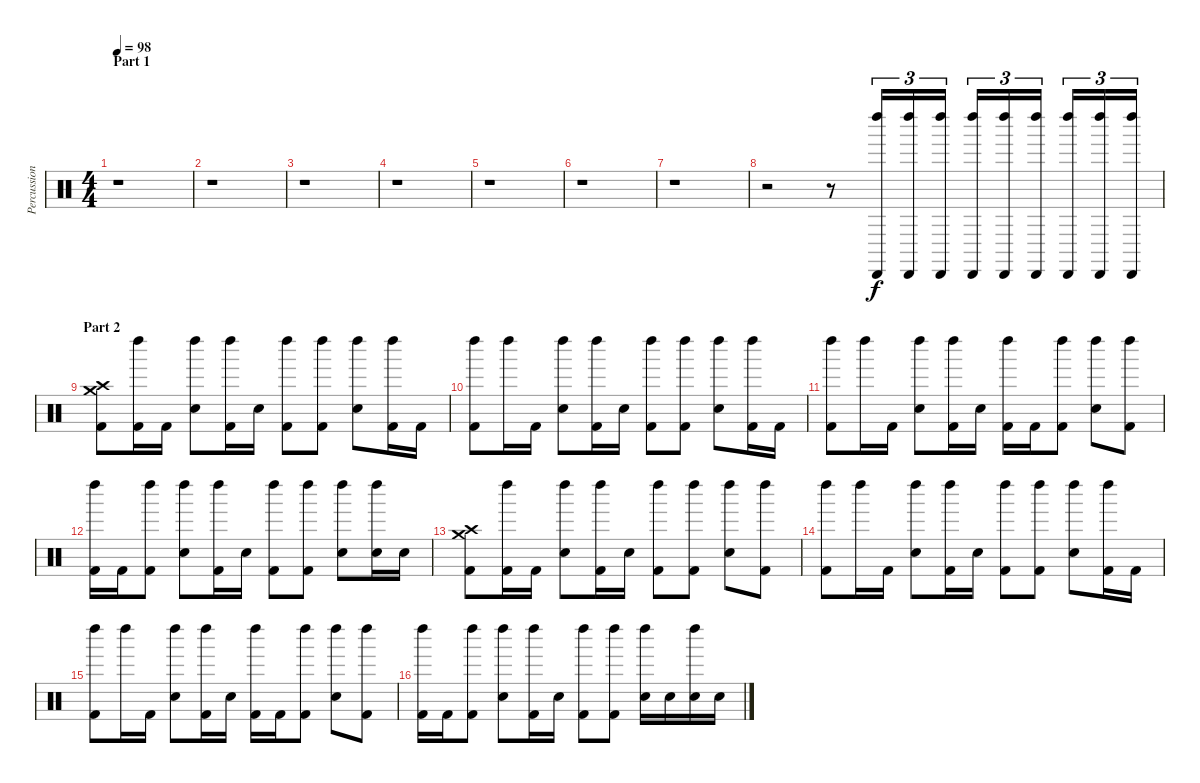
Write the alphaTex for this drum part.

\track ("Percussion" "Percussion") {instrument percussion}
\staff {score}
\articulation defaults
\ts (4 4)
\section ("" "Part 1")
\tempo 98
\clef neutral
\ks c
r.1{dy f} |
r.1 |
r.1 |
r.1 |
r.1 |
r.1 |
r.1 |
r.2{volume 8} r.8 ("Left Maraca (hit)" "Cabasa (hit)").16{tu (3 2)} ("Left Maraca (hit)" "Cabasa (hit)").16{tu (3 2)} ("Left Maraca (hit)" "Cabasa (hit)").16{tu (3 2)} ("Left Maraca (hit)" "Cabasa (hit)").16{tu (3 2)} ("Left Maraca (hit)" "Cabasa (hit)").16{tu (3 2)} ("Left Maraca (hit)" "Cabasa (hit)").16{tu (3 2)} ("Left Maraca (hit)" "Cabasa (hit)").16{tu (3 2)} ("Left Maraca (hit)" "Cabasa (hit)").16{tu (3 2)} ("Left Maraca (hit)" "Cabasa (hit)").16{tu (3 2)} |
\section ("" "Part 2")
("Crash medium (hit)" "Crash high (hit)" "Kick (hit) 2").8{volume 12} ("Left Maraca (hit)" "Kick (hit) 2").16 "Kick (hit) 2".16 ("Left Maraca (hit)" "Snare (hit) 2").8 ("Left Maraca (hit)" "Kick (hit) 2").16 "Snare (hit) 2".16 ("Left Maraca (hit)" "Kick (hit) 2").8 ("Left Maraca (hit)" "Kick (hit) 2").8 ("Left Maraca (hit)" "Snare (hit) 2").8 ("Left Maraca (hit)" "Kick (hit) 2").16 "Kick (hit) 2".16 |
("Left Maraca (hit)" "Kick (hit) 2").8 "Left Maraca (hit)".16 "Kick (hit) 2".16 ("Left Maraca (hit)" "Snare (hit) 2").8 ("Left Maraca (hit)" "Kick (hit) 2").16 "Snare (hit) 2".16 ("Left Maraca (hit)" "Kick (hit) 2").8 ("Left Maraca (hit)" "Kick (hit) 2").8 ("Left Maraca (hit)" "Snare (hit) 2").8 ("Left Maraca (hit)" "Kick (hit) 2").16 "Kick (hit) 2".16 |
("Left Maraca (hit)" "Kick (hit) 2").8 "Left Maraca (hit)".16 "Kick (hit) 2".16 ("Left Maraca (hit)" "Snare (hit) 2").8 ("Left Maraca (hit)" "Kick (hit) 2").16 "Snare (hit) 2".16 ("Left Maraca (hit)" "Kick (hit) 2").16 "Kick (hit) 2".16 ("Left Maraca (hit)" "Kick (hit) 2").8 ("Left Maraca (hit)" "Snare (hit) 2").8 ("Left Maraca (hit)" "Kick (hit) 2").8 |
("Left Maraca (hit)" "Kick (hit) 2").16 "Kick (hit) 2".16 ("Left Maraca (hit)" "Kick (hit) 2").8 ("Left Maraca (hit)" "Snare (hit) 2").8 ("Left Maraca (hit)" "Kick (hit) 2").16 "Snare (hit) 2".16 ("Left Maraca (hit)" "Kick (hit) 2").8 ("Left Maraca (hit)" "Kick (hit) 2").8 ("Left Maraca (hit)" "Snare (hit) 2").8 ("Left Maraca (hit)" "Snare (hit) 2").16 "Snare (hit) 2".16 |
("Crash medium (hit)" "Crash high (hit)" "Kick (hit) 2").8 ("Left Maraca (hit)" "Kick (hit) 2").16 "Kick (hit) 2".16 ("Left Maraca (hit)" "Snare (hit) 2").8 ("Left Maraca (hit)" "Kick (hit) 2").16 "Snare (hit) 2".16 ("Left Maraca (hit)" "Kick (hit) 2").8 ("Left Maraca (hit)" "Kick (hit) 2").8 ("Left Maraca (hit)" "Snare (hit) 2").8 ("Left Maraca (hit)" "Kick (hit) 2").8 |
("Left Maraca (hit)" "Kick (hit) 2").8 "Left Maraca (hit)".16 "Kick (hit) 2".16 ("Left Maraca (hit)" "Snare (hit) 2").8 ("Left Maraca (hit)" "Kick (hit) 2").16 "Snare (hit) 2".16 ("Left Maraca (hit)" "Kick (hit) 2").8 ("Left Maraca (hit)" "Kick (hit) 2").8 ("Left Maraca (hit)" "Snare (hit) 2").8 ("Left Maraca (hit)" "Kick (hit) 2").16 "Kick (hit) 2".16 |
("Left Maraca (hit)" "Kick (hit) 2").8 "Left Maraca (hit)".16 "Kick (hit) 2".16 ("Left Maraca (hit)" "Snare (hit) 2").8 ("Left Maraca (hit)" "Kick (hit) 2").16 "Snare (hit) 2".16 ("Left Maraca (hit)" "Kick (hit) 2").16 "Kick (hit) 2".16 ("Left Maraca (hit)" "Kick (hit) 2").8 ("Left Maraca (hit)" "Snare (hit) 2").8 ("Left Maraca (hit)" "Kick (hit) 2").8 |
("Left Maraca (hit)" "Kick (hit) 2").16 "Kick (hit) 2".16 ("Left Maraca (hit)" "Kick (hit) 2").8 ("Left Maraca (hit)" "Snare (hit) 2").8 ("Left Maraca (hit)" "Kick (hit) 2").16 "Snare (hit) 2".16 ("Left Maraca (hit)" "Kick (hit) 2").8 ("Left Maraca (hit)" "Kick (hit) 2").8 ("Left Maraca (hit)" "Snare (hit) 2").16 "Snare (hit) 2".16 ("Left Maraca (hit)" "Snare (hit) 2").16 "Snare (hit) 2".16
